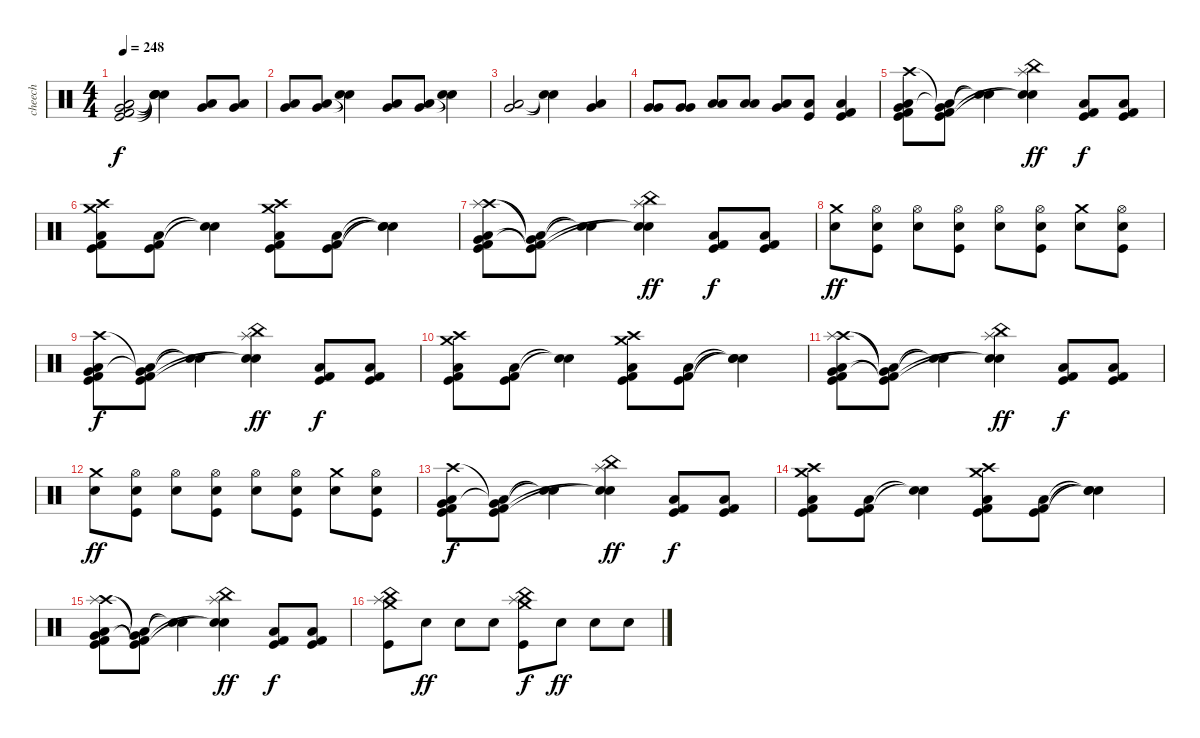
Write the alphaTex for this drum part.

\track ("cheech" "cheech") {instrument percussion}
\staff {score}
\articulation defaults
\ts (4 4)
\tempo 248
\clef neutral
\ks c
("Very Low Tom (hit)" "Low Floor Tom (hit)" "Kick (hit) 2" "Kick (hit)").2{dy f} ("Snare (hit)"{t} "Snare (hit)"{t} "Snare (hit)"{t} "Snare (hit)"{t}).4 ("Very Low Tom (hit)" "Low Floor Tom (hit)").8 ("Very Low Tom (hit)" "Low Floor Tom (hit)").8 |
("Very Low Tom (hit)" "Low Floor Tom (hit)").8 ("Very Low Tom (hit)" "Low Floor Tom (hit)").8 ("Snare (hit)"{t} "Snare (hit)"{t}).4 ("Very Low Tom (hit)" "Low Floor Tom (hit)").8 ("Very Low Tom (hit)" "Low Floor Tom (hit)").8 ("Snare (hit)"{t} "Snare (hit)"{t}).4 |
("Very Low Tom (hit)" "Low Floor Tom (hit)").2 ("Snare (hit)"{t} "Snare (hit)"{t}).4 ("Very Low Tom (hit)" "Low Floor Tom (hit)").4 |
("Very Low Tom (hit)" "Very Low Tom (hit)").8 ("Very Low Tom (hit)" "Very Low Tom (hit)").8 ("Low Floor Tom (hit)" "Low Floor Tom (hit)").8 ("Low Floor Tom (hit)" "Low Floor Tom (hit)").8 ("Very Low Tom (hit)" "Low Floor Tom (hit)").8 ("Low Floor Tom (hit)" "Kick (hit)").8 ("Low Floor Tom (hit)" "Kick (hit) 2" "Kick (hit)").4 |
("Crash high (hit)" "Very Low Tom (hit)" "Low Floor Tom (hit)" "Kick (hit) 2" "Kick (hit)").8 ("Very Low Tom (hit)"{t} "Low Floor Tom (hit)"{t} "Kick (hit) 2" "Kick (hit)").8 ("Snare (hit)"{t} "Snare (hit)"{t}).4 ("Splash (hit)" "China (hit)" "Snare (hit)"{t} "Snare (hit)"{t}).4{dy ff} ("Low Floor Tom (hit)" "Kick (hit) 2" "Kick (hit)").8{dy f} ("Low Floor Tom (hit)" "Kick (hit) 2" "Kick (hit)").8 |
("Crash high (hit)" "Crash medium (hit)" "Low Floor Tom (hit)" "Kick (hit) 2" "Kick (hit)").8 ("Low Floor Tom (hit)" "Kick (hit) 2" "Kick (hit)").8 ("Snare (hit)"{t} "Snare (hit)"{t}).4 ("Crash high (hit)" "Crash medium (hit)" "Low Floor Tom (hit)" "Kick (hit) 2" "Kick (hit)").8 ("Low Floor Tom (hit)" "Kick (hit) 2" "Kick (hit)").8 ("Snare (hit)"{t} "Snare (hit)"{t} "Snare (hit)"{t}).4 |
("Crash high (hit)" "Splash (hit)" "Very Low Tom (hit)" "Low Floor Tom (hit)" "Kick (hit) 2" "Kick (hit)").8 ("Very Low Tom (hit)"{t} "Low Floor Tom (hit)"{t} "Kick (hit) 2"{t} "Kick (hit)"{t}).8 ("Snare (hit)"{t} "Snare (hit)"{t}).4 ("Splash (hit)" "China (hit)" "Snare (hit)"{t} "Snare (hit)"{t}).4{dy ff} ("Low Floor Tom (hit)" "Kick (hit) 2" "Kick (hit)").8{dy f} ("Low Floor Tom (hit)" "Kick (hit) 2" "Kick (hit)").8 |
("Crash medium (hit)" "Electric Snare (hit)").8{dy ff} ("Hi-Hat (open)" "Electric Snare (hit)" "Kick (hit)").8 ("Hi-Hat (open)" "Electric Snare (hit)").8 ("Hi-Hat (open)" "Electric Snare (hit)" "Kick (hit)").8 ("Hi-Hat (open)" "Electric Snare (hit)").8 ("Hi-Hat (open)" "Electric Snare (hit)" "Kick (hit)").8 ("Crash medium (hit)" "Electric Snare (hit)").8 ("Hi-Hat (open)" "Electric Snare (hit)" "Kick (hit)").8 |
("Crash high (hit)" "Very Low Tom (hit)" "Low Floor Tom (hit)" "Kick (hit) 2" "Kick (hit)").8{dy f} ("Very Low Tom (hit)"{t} "Low Floor Tom (hit)"{t} "Kick (hit) 2" "Kick (hit)").8 ("Snare (hit)"{t} "Snare (hit)"{t}).4 ("Splash (hit)" "China (hit)" "Snare (hit)"{t} "Snare (hit)"{t}).4{dy ff} ("Low Floor Tom (hit)" "Kick (hit) 2" "Kick (hit)").8{dy f} ("Low Floor Tom (hit)" "Kick (hit) 2" "Kick (hit)").8 |
("Crash high (hit)" "Crash medium (hit)" "Low Floor Tom (hit)" "Kick (hit) 2" "Kick (hit)").8 ("Low Floor Tom (hit)" "Kick (hit) 2" "Kick (hit)").8 ("Snare (hit)"{t} "Snare (hit)"{t}).4 ("Crash high (hit)" "Crash medium (hit)" "Low Floor Tom (hit)" "Kick (hit) 2" "Kick (hit)").8 ("Low Floor Tom (hit)" "Kick (hit) 2" "Kick (hit)").8 ("Snare (hit)"{t} "Snare (hit)"{t} "Snare (hit)"{t}).4 |
("Crash high (hit)" "Splash (hit)" "Very Low Tom (hit)" "Low Floor Tom (hit)" "Kick (hit) 2" "Kick (hit)").8 ("Very Low Tom (hit)"{t} "Low Floor Tom (hit)"{t} "Kick (hit) 2"{t} "Kick (hit)"{t}).8 ("Snare (hit)"{t} "Snare (hit)"{t}).4 ("Splash (hit)" "China (hit)" "Snare (hit)"{t} "Snare (hit)"{t}).4{dy ff} ("Low Floor Tom (hit)" "Kick (hit) 2" "Kick (hit)").8{dy f} ("Low Floor Tom (hit)" "Kick (hit) 2" "Kick (hit)").8 |
("Crash medium (hit)" "Electric Snare (hit)").8{dy ff} ("Hi-Hat (open)" "Electric Snare (hit)" "Kick (hit)").8 ("Hi-Hat (open)" "Electric Snare (hit)").8 ("Hi-Hat (open)" "Electric Snare (hit)" "Kick (hit)").8 ("Hi-Hat (open)" "Electric Snare (hit)").8 ("Hi-Hat (open)" "Electric Snare (hit)" "Kick (hit)").8 ("Crash medium (hit)" "Electric Snare (hit)").8 ("Hi-Hat (open)" "Electric Snare (hit)" "Kick (hit)").8 |
("Crash high (hit)" "Very Low Tom (hit)" "Low Floor Tom (hit)" "Kick (hit) 2" "Kick (hit)").8{dy f} ("Very Low Tom (hit)"{t} "Low Floor Tom (hit)"{t} "Kick (hit) 2" "Kick (hit)").8 ("Snare (hit)"{t} "Snare (hit)"{t}).4 ("Splash (hit)" "China (hit)" "Snare (hit)"{t} "Snare (hit)"{t}).4{dy ff} ("Low Floor Tom (hit)" "Kick (hit) 2" "Kick (hit)").8{dy f} ("Low Floor Tom (hit)" "Kick (hit) 2" "Kick (hit)").8 |
("Crash high (hit)" "Crash medium (hit)" "Low Floor Tom (hit)" "Kick (hit) 2" "Kick (hit)").8 ("Low Floor Tom (hit)" "Kick (hit) 2" "Kick (hit)").8 ("Snare (hit)"{t} "Snare (hit)"{t}).4 ("Crash high (hit)" "Crash medium (hit)" "Low Floor Tom (hit)" "Kick (hit) 2" "Kick (hit)").8 ("Low Floor Tom (hit)" "Kick (hit) 2" "Kick (hit)").8 ("Snare (hit)"{t} "Snare (hit)"{t} "Snare (hit)"{t}).4 |
("Crash high (hit)" "Splash (hit)" "Very Low Tom (hit)" "Low Floor Tom (hit)" "Kick (hit) 2" "Kick (hit)").8 ("Very Low Tom (hit)"{t} "Low Floor Tom (hit)"{t} "Kick (hit) 2"{t} "Kick (hit)"{t}).8 ("Snare (hit)"{t} "Snare (hit)"{t}).4 ("Splash (hit)" "China (hit)" "Snare (hit)"{t} "Snare (hit)"{t}).4{dy ff} ("Low Floor Tom (hit)" "Kick (hit) 2" "Kick (hit)").8{dy f} ("Low Floor Tom (hit)" "Kick (hit) 2" "Kick (hit)").8 |
("Splash (hit)" "China (hit)" "Crash medium (hit)" "Kick (hit)").8 "Electric Snare (hit)".8{dy ff} "Electric Snare (hit)".8 "Electric Snare (hit)".8 ("Splash (hit)" "China (hit)" "Crash medium (hit)" "Kick (hit)").8{dy f} "Electric Snare (hit)".8{dy ff} "Electric Snare (hit)".8 "Electric Snare (hit)".8
